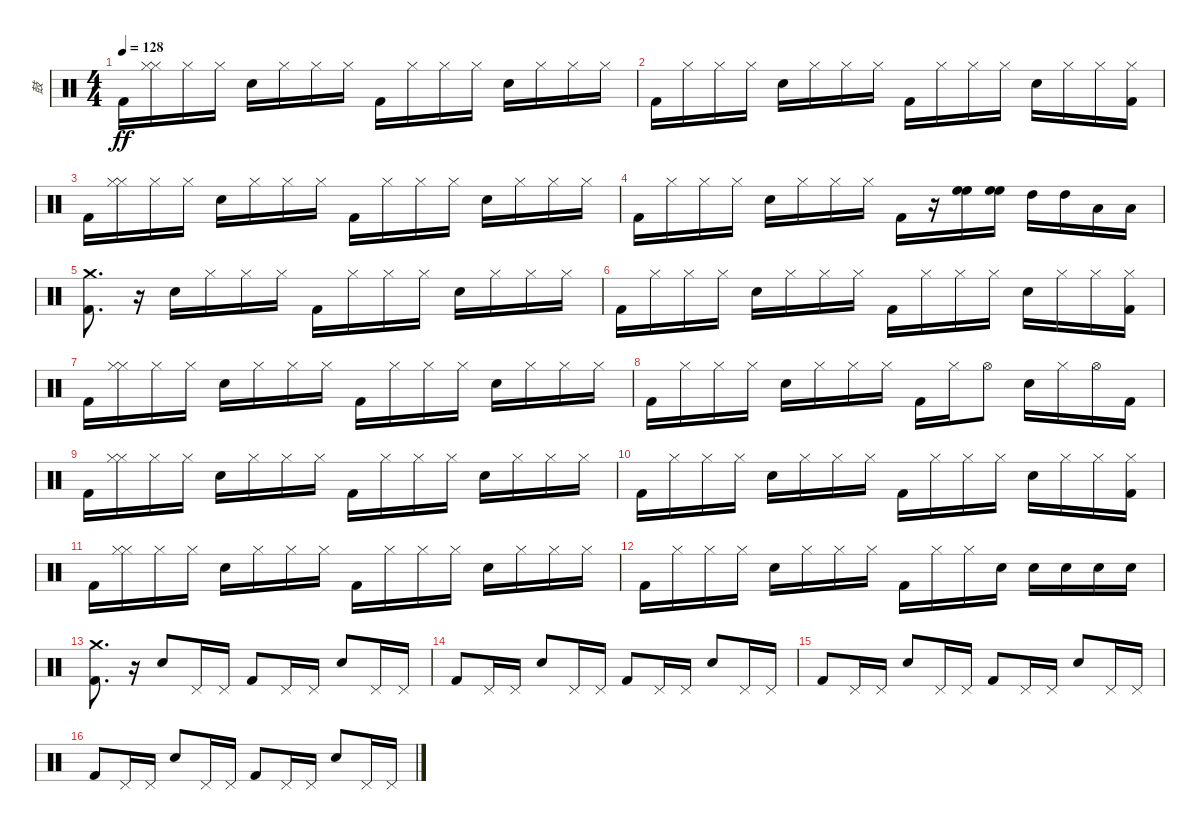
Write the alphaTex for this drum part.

\track ("鼓" "鼓") {instrument percussion}
\staff {score}
\articulation defaults
\ts (4 4)
\tempo 128
\clef neutral
\ks c "Kick (hit) 2".16{dy ff}
("Hi-Hat (closed)" "Hi-Hat (closed)").16 "Hi-Hat (closed)".16 "Hi-Hat (closed)".16 "Snare (hit) 2".16 "Hi-Hat (closed)".16 "Hi-Hat (closed)".16 "Hi-Hat (closed)".16 "Kick (hit) 2".16 "Hi-Hat (closed)".16 "Hi-Hat (closed)".16 "Hi-Hat (closed)".16 "Snare (hit) 2".16 "Hi-Hat (closed)".16 "Hi-Hat (closed)".16 "Hi-Hat (closed)".16 |
"Kick (hit) 2".16 "Hi-Hat (closed)".16 "Hi-Hat (closed)".16 "Hi-Hat (closed)".16 "Snare (hit) 2".16 "Hi-Hat (closed)".16 "Hi-Hat (closed)".16 "Hi-Hat (closed)".16 "Kick (hit) 2".16 "Hi-Hat (closed)".16 "Hi-Hat (closed)".16 "Hi-Hat (closed)".16 "Snare (hit) 2".16 "Hi-Hat (closed)".16 "Hi-Hat (closed)".16 ("Kick (hit) 2" "Hi-Hat (closed)").16 |
"Kick (hit) 2".16 ("Hi-Hat (closed)" "Hi-Hat (closed)").16 "Hi-Hat (closed)".16 "Hi-Hat (closed)".16 "Snare (hit) 2".16 "Hi-Hat (closed)".16 "Hi-Hat (closed)".16 "Hi-Hat (closed)".16 "Kick (hit) 2".16 "Hi-Hat (closed)".16 "Hi-Hat (closed)".16 "Hi-Hat (closed)".16 "Snare (hit) 2".16 "Hi-Hat (closed)".16 "Hi-Hat (closed)".16 "Hi-Hat (closed)".16 |
"Kick (hit) 2".16 "Hi-Hat (closed)".16 "Hi-Hat (closed)".16 "Hi-Hat (closed)".16 "Snare (hit) 2".16 "Hi-Hat (closed)".16 "Hi-Hat (closed)".16 "Hi-Hat (closed)".16 "Kick (hit) 2".16 r.16 ("High Floor Tom (hit)" "High Floor Tom (hit)").16 ("High Floor Tom (hit)" "High Floor Tom (hit)").16 "High Tom (hit)".16 "High Tom (hit)".16 "Low Tom (hit)".16 "Low Floor Tom (hit)".16 |
("Kick (hit) 2" "Crash medium (hit)").8{d} r.16 "Snare (hit) 2".16 "Hi-Hat (closed)".16 "Hi-Hat (closed)".16 "Hi-Hat (closed)".16 "Kick (hit) 2".16 "Hi-Hat (closed)".16 "Hi-Hat (closed)".16 "Hi-Hat (closed)".16 "Snare (hit) 2".16 "Hi-Hat (closed)".16 "Hi-Hat (closed)".16 "Hi-Hat (closed)".16 |
"Kick (hit) 2".16 "Hi-Hat (closed)".16 "Hi-Hat (closed)".16 "Hi-Hat (closed)".16 "Snare (hit) 2".16 "Hi-Hat (closed)".16 "Hi-Hat (closed)".16 "Hi-Hat (closed)".16 "Kick (hit) 2".16 "Hi-Hat (closed)".16 "Hi-Hat (closed)".16 "Hi-Hat (closed)".16 "Snare (hit) 2".16 "Hi-Hat (closed)".16 "Hi-Hat (closed)".16 ("Kick (hit) 2" "Hi-Hat (closed)").16 |
"Kick (hit) 2".16 ("Hi-Hat (closed)" "Hi-Hat (closed)").16 "Hi-Hat (closed)".16 "Hi-Hat (closed)".16 "Snare (hit) 2".16 "Hi-Hat (closed)".16 "Hi-Hat (closed)".16 "Hi-Hat (closed)".16 "Kick (hit) 2".16 "Hi-Hat (closed)".16 "Hi-Hat (closed)".16 "Hi-Hat (closed)".16 "Snare (hit) 2".16 "Hi-Hat (closed)".16 "Hi-Hat (closed)".16 "Hi-Hat (closed)".16 |
"Kick (hit) 2".16 "Hi-Hat (closed)".16 "Hi-Hat (closed)".16 "Hi-Hat (closed)".16 "Snare (hit) 2".16 "Hi-Hat (closed)".16 "Hi-Hat (closed)".16 "Hi-Hat (closed)".16 "Kick (hit) 2".16 "Hi-Hat (closed)".16 "Hi-Hat (open)".8 "Snare (hit) 2".16 "Hi-Hat (closed)".16 "Hi-Hat (open)".16 "Kick (hit) 2".16 |
"Kick (hit) 2".16 ("Hi-Hat (closed)" "Hi-Hat (closed)").16 "Hi-Hat (closed)".16 "Hi-Hat (closed)".16 "Snare (hit) 2".16 "Hi-Hat (closed)".16 "Hi-Hat (closed)".16 "Hi-Hat (closed)".16 "Kick (hit) 2".16 "Hi-Hat (closed)".16 "Hi-Hat (closed)".16 "Hi-Hat (closed)".16 "Snare (hit) 2".16 "Hi-Hat (closed)".16 "Hi-Hat (closed)".16 "Hi-Hat (closed)".16 |
"Kick (hit) 2".16 "Hi-Hat (closed)".16 "Hi-Hat (closed)".16 "Hi-Hat (closed)".16 "Snare (hit) 2".16 "Hi-Hat (closed)".16 "Hi-Hat (closed)".16 "Hi-Hat (closed)".16 "Kick (hit) 2".16 "Hi-Hat (closed)".16 "Hi-Hat (closed)".16 "Hi-Hat (closed)".16 "Snare (hit) 2".16 "Hi-Hat (closed)".16 "Hi-Hat (closed)".16 ("Kick (hit) 2" "Hi-Hat (closed)").16 |
"Kick (hit) 2".16 ("Hi-Hat (closed)" "Hi-Hat (closed)").16 "Hi-Hat (closed)".16 "Hi-Hat (closed)".16 "Snare (hit) 2".16 "Hi-Hat (closed)".16 "Hi-Hat (closed)".16 "Hi-Hat (closed)".16 "Kick (hit) 2".16 "Hi-Hat (closed)".16 "Hi-Hat (closed)".16 "Hi-Hat (closed)".16 "Snare (hit) 2".16 "Hi-Hat (closed)".16 "Hi-Hat (closed)".16 "Hi-Hat (closed)".16 |
"Kick (hit) 2".16 "Hi-Hat (closed)".16 "Hi-Hat (closed)".16 "Hi-Hat (closed)".16 "Snare (hit) 2".16 "Hi-Hat (closed)".16 "Hi-Hat (closed)".16 "Hi-Hat (closed)".16 "Kick (hit) 2".16 "Hi-Hat (closed)".16 "Hi-Hat (closed)".16 "Snare (hit) 2".16 "Snare (hit) 2".16 "Snare (hit) 2".16 "Snare (hit) 2".16 "Snare (hit) 2".16 |
("Kick (hit) 2" "Crash medium (hit)").8{d} r.16 "Snare (hit) 2".8 "Pedal Hi-Hat (hit)".16 "Pedal Hi-Hat (hit)".16 "Kick (hit) 2".8 "Pedal Hi-Hat (hit)".16 "Pedal Hi-Hat (hit)".16 "Snare (hit) 2".8 "Pedal Hi-Hat (hit)".16 "Pedal Hi-Hat (hit)".16 |
"Kick (hit) 2".8 "Pedal Hi-Hat (hit)".16 "Pedal Hi-Hat (hit)".16 "Snare (hit) 2".8 "Pedal Hi-Hat (hit)".16 "Pedal Hi-Hat (hit)".16 "Kick (hit) 2".8 "Pedal Hi-Hat (hit)".16 "Pedal Hi-Hat (hit)".16 "Snare (hit) 2".8 "Pedal Hi-Hat (hit)".16 "Pedal Hi-Hat (hit)".16 |
"Kick (hit) 2".8 "Pedal Hi-Hat (hit)".16 "Pedal Hi-Hat (hit)".16 "Snare (hit) 2".8 "Pedal Hi-Hat (hit)".16 "Pedal Hi-Hat (hit)".16 "Kick (hit) 2".8 "Pedal Hi-Hat (hit)".16 "Pedal Hi-Hat (hit)".16 "Snare (hit) 2".8 "Pedal Hi-Hat (hit)".16 "Pedal Hi-Hat (hit)".16 |
"Kick (hit) 2".8 "Pedal Hi-Hat (hit)".16 "Pedal Hi-Hat (hit)".16 "Snare (hit) 2".8 "Pedal Hi-Hat (hit)".16 "Pedal Hi-Hat (hit)".16 "Kick (hit) 2".8 "Pedal Hi-Hat (hit)".16 "Pedal Hi-Hat (hit)".16 "Snare (hit) 2".8 "Pedal Hi-Hat (hit)".16 "Pedal Hi-Hat (hit)".16
